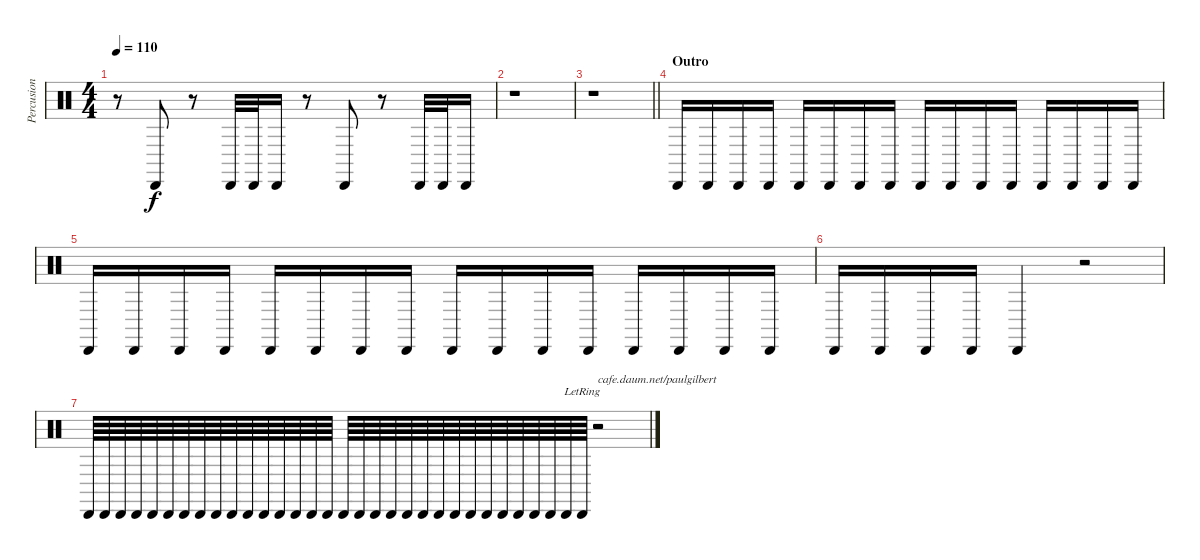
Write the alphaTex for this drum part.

\track ("Percusion" "Percusion") {instrument percussion}
\staff {score}
\articulation defaults
\ts (4 4)
\tempo 110
\clef neutral
\ks c
r.8{dy f} "Cabasa (hit)".8 r.8 "Cabasa (hit)".32 "Cabasa (hit)".32 "Cabasa (hit)".16 r.8 "Cabasa (hit)".8 r.8 "Cabasa (hit)".32 "Cabasa (hit)".32 "Cabasa (hit)".16 |
r.1 |
\barLineRight lightlight
r.1 |
\section ("" "Outro")
"Cabasa (hit)".16 "Cabasa (hit)".16 "Cabasa (hit)".16 "Cabasa (hit)".16 "Cabasa (hit)".16 "Cabasa (hit)".16 "Cabasa (hit)".16 "Cabasa (hit)".16 "Cabasa (hit)".16 "Cabasa (hit)".16 "Cabasa (hit)".16 "Cabasa (hit)".16 "Cabasa (hit)".16 "Cabasa (hit)".16 "Cabasa (hit)".16 "Cabasa (hit)".16 |
"Cabasa (hit)".16 "Cabasa (hit)".16 "Cabasa (hit)".16 "Cabasa (hit)".16 "Cabasa (hit)".16 "Cabasa (hit)".16 "Cabasa (hit)".16 "Cabasa (hit)".16 "Cabasa (hit)".16 "Cabasa (hit)".16 "Cabasa (hit)".16 "Cabasa (hit)".16 "Cabasa (hit)".16 "Cabasa (hit)".16 "Cabasa (hit)".16 "Cabasa (hit)".16 |
"Cabasa (hit)".16 "Cabasa (hit)".16 "Cabasa (hit)".16 "Cabasa (hit)".16 "Cabasa (hit)".4 r.2 |
"Cabasa (hit)".64 "Cabasa (hit)".64 "Cabasa (hit)".64 "Cabasa (hit)".64 "Cabasa (hit)".64 "Cabasa (hit)".64 "Cabasa (hit)".64 "Cabasa (hit)".64 "Cabasa (hit)".64 "Cabasa (hit)".64 "Cabasa (hit)".64 "Cabasa (hit)".64 "Cabasa (hit)".64 "Cabasa (hit)".64 "Cabasa (hit)".64 "Cabasa (hit)".64 "Cabasa (hit)".64 "Cabasa (hit)".64 "Cabasa (hit)".64 "Cabasa (hit)".64 "Cabasa (hit)".64 "Cabasa (hit)".64 "Cabasa (hit)".64 "Cabasa (hit)".64 "Cabasa (hit)".64 "Cabasa (hit)".64 "Cabasa (hit)".64 "Cabasa (hit)".64 "Cabasa (hit)".64 "Cabasa (hit)".64 "Cabasa (hit)".64 "Cabasa (hit)"{lr}.64 r.2{txt "cafe.daum.net/paulgilbert"}
